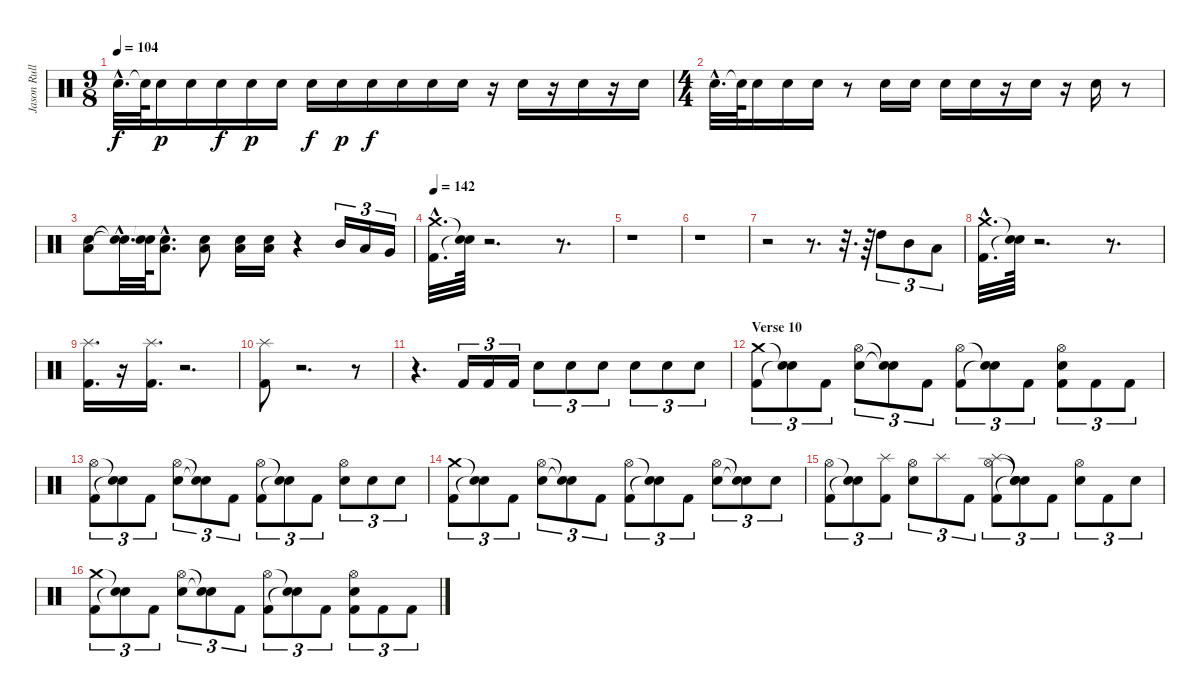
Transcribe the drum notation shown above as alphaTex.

\track ("Jason Rullo" "Jason Rull") {instrument percussion}
\staff {score}
\articulation defaults
\ts (9 8)
\tempo 104
\clef neutral
\ks c "Electric Snare (hit)"{hac}.32{d dy f} "Snare (hit)"{t}.64 "Electric Snare (hit)".16{dy p} "Electric Snare (hit)".16 "Electric Snare (hit)".16{dy f} "Electric Snare (hit)".16{dy p} "Electric Snare (hit)".16 "Electric Snare (hit)".16{dy f} "Electric Snare (hit)".16{dy p} "Electric Snare (hit)".16{dy f} "Electric Snare (hit)".16 "Electric Snare (hit)".16 "Electric Snare (hit)".16
r.16 "Electric Snare (hit)".16 r.16 "Electric Snare (hit)".16 r.16 "Electric Snare (hit)".16 |
\ts (4 4)
"Electric Snare (hit)"{hac}.32{d} "Snare (hit)"{t}.64 "Electric Snare (hit)".16 "Electric Snare (hit)".16 "Electric Snare (hit)".16 r.8 "Electric Snare (hit)".16 "Electric Snare (hit)".16 "Electric Snare (hit)".16 "Electric Snare (hit)".16 r.16 "Electric Snare (hit)".16 r.16 "Electric Snare (hit)".16 r.8 |
("Low Tom (hit)" "Electric Snare (hit)").8 ("Snare (hit)"{hac t} "Snare (hit)"{hac t}).32{d} ("Snare (hit)"{t} "Snare (hit)"{t}).64 ("Low Tom (hit)"{hac} "Electric Snare (hit)"{hac}).8{d} ("Low Tom (hit)" "Electric Snare (hit)").8 ("Low Tom (hit)" "Electric Snare (hit)").16 ("Low Tom (hit)" "Electric Snare (hit)").16 r.4 "Mid Tom (hit)".16{tu (3 2)} "Low Tom (hit)".16{tu (3 2)} "Very Low Tom (hit)".16{tu (3 2)} |
\tempo 142
("Crash medium (hit)"{hac} "Kick (hit) 2"{hac}).32{d} ("Snare (hit)"{t} "Snare (hit)"{t}).64 r.2{d} r.8{d} |
r.1 |
r.1 |
r.2 r.8{d} r.32{d} r.64 "High Tom (hit)".8{tu (3 2)} "Mid Tom (hit)".8{tu (3 2)} "Low Tom (hit)".8{tu (3 2)} |
("Crash medium (hit)"{hac} "Kick (hit) 2"{hac}).32{d} ("Snare (hit)"{t} "Snare (hit)"{t}).64 r.2{d} r.8{d} |
("Splash (hit)" "Kick (hit) 2").16{d} r.16 ("Splash (hit)" "Kick (hit) 2").16{d} r.2{d} |
("Splash (hit)" "Kick (hit) 2").8 r.2{d} r.8 |
r.4{d} "Kick (hit) 2".16{tu (3 2)} "Kick (hit) 2".16{tu (3 2)} "Kick (hit) 2".16{tu (3 2)} "Electric Snare (hit)".8{tu (3 2)} "Electric Snare (hit)".8{tu (3 2)} "Electric Snare (hit)".8{tu (3 2)} "Electric Snare (hit)".8{tu (3 2)} "Electric Snare (hit)".8{tu (3 2)} "Electric Snare (hit)".8{tu (3 2)} |
\section ("" "Verse 10")
("Crash medium (hit)" "Kick (hit) 2").8{tu (3 2)} ("Snare (hit)"{t} "Snare (hit)"{t}).8{tu (3 2)} "Kick (hit) 2".8{tu (3 2)} ("Hi-Hat (open)" "Electric Snare (hit)").8{tu (3 2)} ("Snare (hit)"{t} "Snare (hit)"{t}).8{tu (3 2)} "Kick (hit) 2".8{tu (3 2)} ("Hi-Hat (open)" "Kick (hit) 2").8{tu (3 2)} ("Snare (hit)"{t} "Snare (hit)"{t}).8{tu (3 2)} "Kick (hit) 2".8{tu (3 2)} ("Hi-Hat (open)" "Electric Snare (hit)" "Kick (hit) 2").8{tu (3 2)} "Kick (hit) 2".8{tu (3 2)} "Kick (hit) 2".8{tu (3 2)} |
("Hi-Hat (open)" "Kick (hit) 2").8{tu (3 2)} ("Snare (hit)"{t} "Snare (hit)"{t}).8{tu (3 2)} "Kick (hit) 2".8{tu (3 2)} ("Hi-Hat (open)" "Electric Snare (hit)").8{tu (3 2)} ("Snare (hit)"{t} "Snare (hit)"{t}).8{tu (3 2)} "Kick (hit) 2".8{tu (3 2)} ("Hi-Hat (open)" "Kick (hit) 2").8{tu (3 2)} ("Snare (hit)"{t} "Snare (hit)"{t}).8{tu (3 2)} "Kick (hit) 2".8{tu (3 2)} ("Hi-Hat (open)" "Electric Snare (hit)").8{tu (3 2)} "Electric Snare (hit)".8{tu (3 2)} "Electric Snare (hit)".8{tu (3 2)} |
("Crash medium (hit)" "Kick (hit) 2").8{tu (3 2)} ("Snare (hit)"{t} "Snare (hit)"{t}).8{tu (3 2)} "Kick (hit) 2".8{tu (3 2)} ("Hi-Hat (open)" "Electric Snare (hit)").8{tu (3 2)} ("Snare (hit)"{t} "Snare (hit)"{t}).8{tu (3 2)} "Kick (hit) 2".8{tu (3 2)} ("Hi-Hat (open)" "Kick (hit) 2").8{tu (3 2)} ("Snare (hit)"{t} "Snare (hit)"{t}).8{tu (3 2)} "Kick (hit) 2".8{tu (3 2)} ("Hi-Hat (open)" "Electric Snare (hit)").8{tu (3 2)} ("Snare (hit)"{t} "Snare (hit)"{t}).8{tu (3 2)} "Electric Snare (hit)".8{tu (3 2)} |
("Hi-Hat (open)" "Kick (hit) 2").8{tu (3 2)} ("Snare (hit)"{t} "Snare (hit)"{t}).8{tu (3 2)} ("Splash (hit)" "Kick (hit) 2").8{tu (3 2)} ("Hi-Hat (open)" "Electric Snare (hit)").8{tu (3 2)} "Splash (hit)".8{tu (3 2)} "Kick (hit) 2".8{tu (3 2)} ("Splash (hit)" "Hi-Hat (open)" "Kick (hit) 2").8{tu (3 2)} ("Snare (hit)"{t} "Snare (hit)"{t} "Snare (hit)"{t}).8{tu (3 2)} "Kick (hit) 2".8{tu (3 2)} ("Electric Snare (hit)" "Hi-Hat (open)").8{tu (3 2)} "Kick (hit) 2".8{tu (3 2)} "Electric Snare (hit)".8{tu (3 2)} |
("Crash medium (hit)" "Kick (hit) 2").8{tu (3 2)} ("Snare (hit)"{t} "Snare (hit)"{t}).8{tu (3 2)} "Kick (hit) 2".8{tu (3 2)} ("Hi-Hat (open)" "Electric Snare (hit)").8{tu (3 2)} ("Snare (hit)"{t} "Snare (hit)"{t}).8{tu (3 2)} "Kick (hit) 2".8{tu (3 2)} ("Hi-Hat (open)" "Kick (hit) 2").8{tu (3 2)} ("Snare (hit)"{t} "Snare (hit)"{t}).8{tu (3 2)} "Kick (hit) 2".8{tu (3 2)} ("Hi-Hat (open)" "Electric Snare (hit)" "Kick (hit) 2").8{tu (3 2)} "Kick (hit) 2".8{tu (3 2)} "Kick (hit) 2".8{tu (3 2)}
